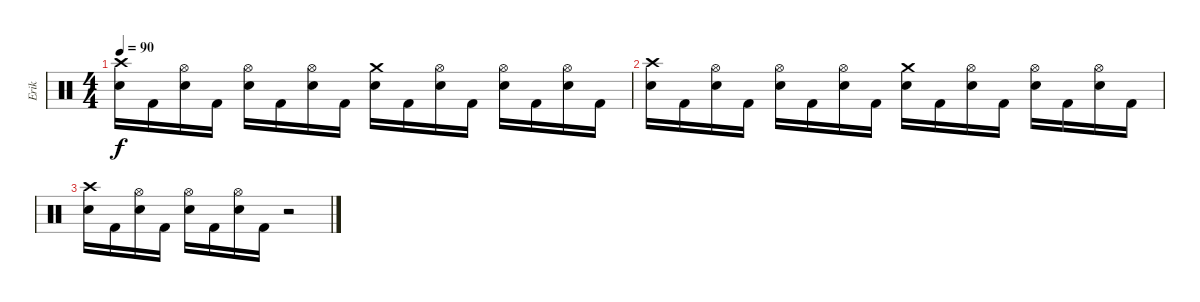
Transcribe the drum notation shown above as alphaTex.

\track ("Erik" "Erik") {instrument percussion}
\staff {score}
\articulation defaults
\ts (4 4)
\tempo 90
\clef neutral
\ks c
("Crash high (hit)" "Electric Snare (hit)").16{dy f} "Kick (hit) 2".16 ("Hi-Hat (open)" "Electric Snare (hit)").16 "Kick (hit) 2".16 ("Hi-Hat (open)" "Electric Snare (hit)").16 "Kick (hit) 2".16 ("Hi-Hat (open)" "Electric Snare (hit)").16 "Kick (hit) 2".16 ("Crash medium (hit)" "Electric Snare (hit)").16 "Kick (hit) 2".16 ("Hi-Hat (open)" "Electric Snare (hit)").16 "Kick (hit) 2".16 ("Hi-Hat (open)" "Electric Snare (hit)").16 "Kick (hit) 2".16 ("Hi-Hat (open)" "Electric Snare (hit)").16 "Kick (hit) 2".16 |
("Crash high (hit)" "Electric Snare (hit)").16 "Kick (hit) 2".16 ("Hi-Hat (open)" "Electric Snare (hit)").16 "Kick (hit) 2".16 ("Hi-Hat (open)" "Electric Snare (hit)").16 "Kick (hit) 2".16 ("Hi-Hat (open)" "Electric Snare (hit)").16 "Kick (hit) 2".16 ("Crash medium (hit)" "Electric Snare (hit)").16 "Kick (hit) 2".16 ("Hi-Hat (open)" "Electric Snare (hit)").16 "Kick (hit) 2".16 ("Hi-Hat (open)" "Electric Snare (hit)").16 "Kick (hit) 2".16 ("Hi-Hat (open)" "Electric Snare (hit)").16 "Kick (hit) 2".16 |
("Crash high (hit)" "Electric Snare (hit)").16 "Kick (hit) 2".16 ("Hi-Hat (open)" "Electric Snare (hit)").16 "Kick (hit) 2".16 ("Hi-Hat (open)" "Electric Snare (hit)").16 "Kick (hit) 2".16 ("Hi-Hat (open)" "Electric Snare (hit)").16 "Kick (hit) 2".16 r.2
